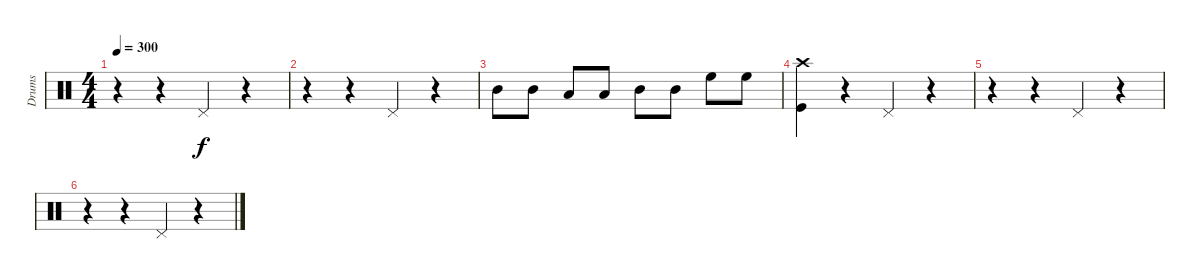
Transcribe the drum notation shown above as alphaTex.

\track ("Drums" "Drums") {instrument percussion}
\staff {score}
\articulation defaults
\ts (4 4)
\tempo 300
\clef neutral
\ks c
r.4{dy f} r.4 "Pedal Hi-Hat (hit)".4 r.4 |
r.4 r.4 "Pedal Hi-Hat (hit)".4 r.4 |
"Mid Tom (hit)".8 "Mid Tom (hit)".8 "Low Tom (hit)".8 "Low Tom (hit)".8 "Mid Tom (hit)".8 "Mid Tom (hit)".8 "High Floor Tom (hit)".8 "High Floor Tom (hit)".8 |
("Crash high (hit)" "Kick (hit)").4 r.4 "Pedal Hi-Hat (hit)".4 r.4 |
r.4 r.4 "Pedal Hi-Hat (hit)".4 r.4 |
r.4 r.4 "Pedal Hi-Hat (hit)".4 r.4
